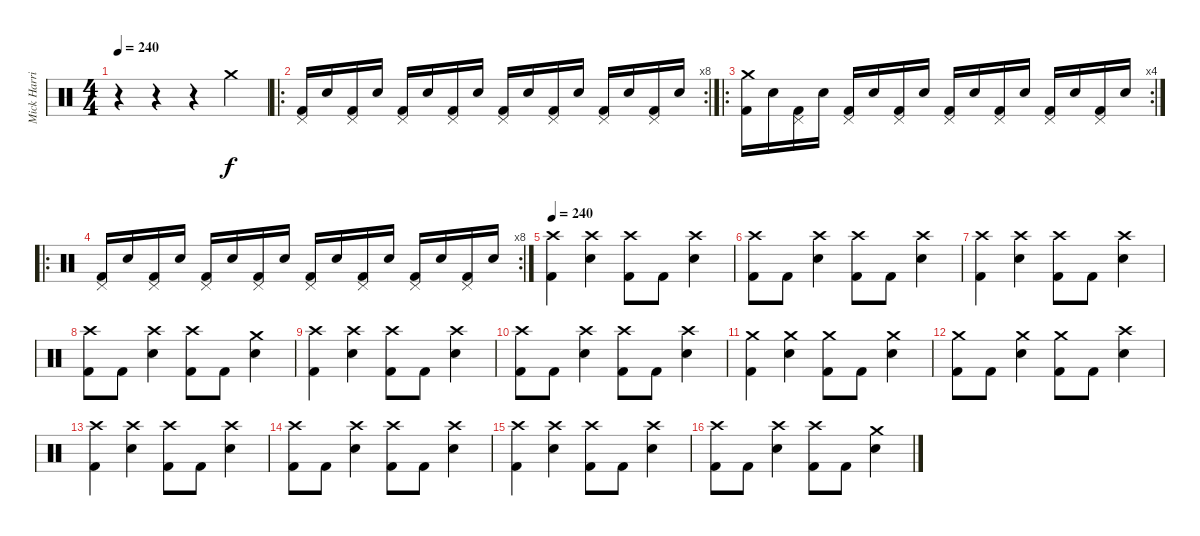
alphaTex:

\track ("Mick Harris" "Mick Harri") {instrument percussion}
\staff {score}
\articulation defaults
\ts (4 4)
\tempo 240
\clef neutral
\ks c
r.4{dy f} r.4 r.4 "Crash medium (hit)".4 |
\ro
\rc 8
("Pedal Hi-Hat (hit)" "Kick (hit) 2").16 "Snare (hit) 2".16 ("Pedal Hi-Hat (hit)" "Kick (hit) 2").16 "Snare (hit) 2".16 ("Pedal Hi-Hat (hit)" "Kick (hit) 2").16 "Snare (hit) 2".16 ("Pedal Hi-Hat (hit)" "Kick (hit) 2").16 "Snare (hit) 2".16 ("Pedal Hi-Hat (hit)" "Kick (hit) 2").16 "Snare (hit) 2".16 ("Pedal Hi-Hat (hit)" "Kick (hit) 2").16 "Snare (hit) 2".16 ("Pedal Hi-Hat (hit)" "Kick (hit) 2").16 "Snare (hit) 2".16 ("Pedal Hi-Hat (hit)" "Kick (hit) 2").16 "Snare (hit) 2".16 |
\ro
\rc 4
("Crash medium (hit)" "Kick (hit) 2").16 "Snare (hit) 2".16 ("Pedal Hi-Hat (hit)" "Kick (hit) 2").16 "Snare (hit) 2".16 ("Pedal Hi-Hat (hit)" "Kick (hit) 2").16 "Snare (hit) 2".16 ("Pedal Hi-Hat (hit)" "Kick (hit) 2").16 "Snare (hit) 2".16 ("Pedal Hi-Hat (hit)" "Kick (hit) 2").16 "Snare (hit) 2".16 ("Pedal Hi-Hat (hit)" "Kick (hit) 2").16 "Snare (hit) 2".16 ("Pedal Hi-Hat (hit)" "Kick (hit) 2").16 "Snare (hit) 2".16 ("Pedal Hi-Hat (hit)" "Kick (hit) 2").16 "Snare (hit) 2".16 |
\ro
\rc 8
("Pedal Hi-Hat (hit)" "Kick (hit) 2").16 "Snare (hit) 2".16 ("Pedal Hi-Hat (hit)" "Kick (hit) 2").16 "Snare (hit) 2".16 ("Pedal Hi-Hat (hit)" "Kick (hit) 2").16 "Snare (hit) 2".16 ("Pedal Hi-Hat (hit)" "Kick (hit) 2").16 "Snare (hit) 2".16 ("Pedal Hi-Hat (hit)" "Kick (hit) 2").16 "Snare (hit) 2".16 ("Pedal Hi-Hat (hit)" "Kick (hit) 2").16 "Snare (hit) 2".16 ("Pedal Hi-Hat (hit)" "Kick (hit) 2").16 "Snare (hit) 2".16 ("Pedal Hi-Hat (hit)" "Kick (hit) 2").16 "Snare (hit) 2".16 |
\tempo 240
("Crash high (hit)" "Kick (hit) 2").4 ("Crash high (hit)" "Snare (hit) 2").4 ("Crash high (hit)" "Kick (hit) 2").8 "Kick (hit) 2".8 ("Crash high (hit)" "Snare (hit) 2").4 |
("Crash high (hit)" "Kick (hit) 2").8 "Kick (hit) 2".8 ("Crash high (hit)" "Snare (hit) 2").4 ("Crash high (hit)" "Kick (hit) 2").8 "Kick (hit) 2".8 ("Crash high (hit)" "Snare (hit) 2").4 |
("Crash high (hit)" "Kick (hit) 2").4 ("Crash high (hit)" "Snare (hit) 2").4 ("Crash high (hit)" "Kick (hit) 2").8 "Kick (hit) 2".8 ("Crash high (hit)" "Snare (hit) 2").4 |
("Crash high (hit)" "Kick (hit) 2").8 "Kick (hit) 2".8 ("Crash high (hit)" "Snare (hit) 2").4 ("Crash high (hit)" "Kick (hit) 2").8 "Kick (hit) 2".8 ("Crash medium (hit)" "Snare (hit) 2").4 |
("Crash high (hit)" "Kick (hit) 2").4 ("Crash high (hit)" "Snare (hit) 2").4 ("Crash high (hit)" "Kick (hit) 2").8 "Kick (hit) 2".8 ("Crash high (hit)" "Snare (hit) 2").4 |
("Crash high (hit)" "Kick (hit) 2").8 "Kick (hit) 2".8 ("Crash high (hit)" "Snare (hit) 2").4 ("Crash high (hit)" "Kick (hit) 2").8 "Kick (hit) 2".8 ("Crash high (hit)" "Snare (hit) 2").4 |
("Crash medium (hit)" "Kick (hit) 2").4 ("Crash medium (hit)" "Snare (hit) 2").4 ("Crash medium (hit)" "Kick (hit) 2").8 "Kick (hit) 2".8 ("Crash medium (hit)" "Snare (hit) 2").4 |
("Crash medium (hit)" "Kick (hit) 2").8 "Kick (hit) 2".8 ("Crash medium (hit)" "Snare (hit) 2").4 ("Crash medium (hit)" "Kick (hit) 2").8 "Kick (hit) 2".8 ("Crash high (hit)" "Snare (hit) 2").4 |
("Crash high (hit)" "Kick (hit) 2").4 ("Crash high (hit)" "Snare (hit) 2").4 ("Crash high (hit)" "Kick (hit) 2").8 "Kick (hit) 2".8 ("Crash high (hit)" "Snare (hit) 2").4 |
("Crash high (hit)" "Kick (hit) 2").8 "Kick (hit) 2".8 ("Crash high (hit)" "Snare (hit) 2").4 ("Crash high (hit)" "Kick (hit) 2").8 "Kick (hit) 2".8 ("Crash high (hit)" "Snare (hit) 2").4 |
("Crash high (hit)" "Kick (hit) 2").4 ("Crash high (hit)" "Snare (hit) 2").4 ("Crash high (hit)" "Kick (hit) 2").8 "Kick (hit) 2".8 ("Crash high (hit)" "Snare (hit) 2").4 |
("Crash high (hit)" "Kick (hit) 2").8 "Kick (hit) 2".8 ("Crash high (hit)" "Snare (hit) 2").4 ("Crash high (hit)" "Kick (hit) 2").8 "Kick (hit) 2".8 ("Crash medium (hit)" "Snare (hit) 2").4
